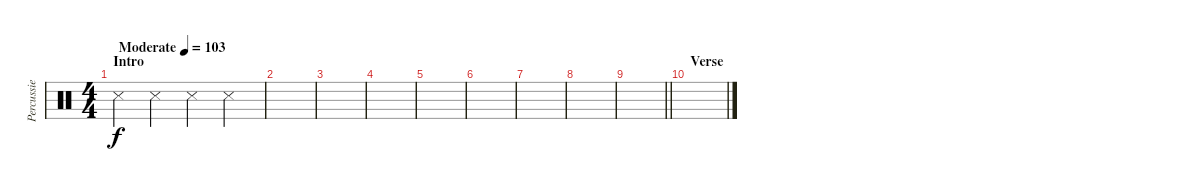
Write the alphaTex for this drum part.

\track ("Percussie" "Percussie") {instrument percussion}
\staff {score}
\articulation defaults
\ts (4 4)
\section ("" "Intro")
\tempo (103 "Moderate")
\clef neutral
\ks c "Snare (side stick) 3".4{dy f} "Snare (side stick) 3".4 "Snare (side stick) 3".4 "Snare (side stick) 3".4
|
|
|
|
|
|
|
|
\barLineRight lightlight
|
\section ("" "Verse")
